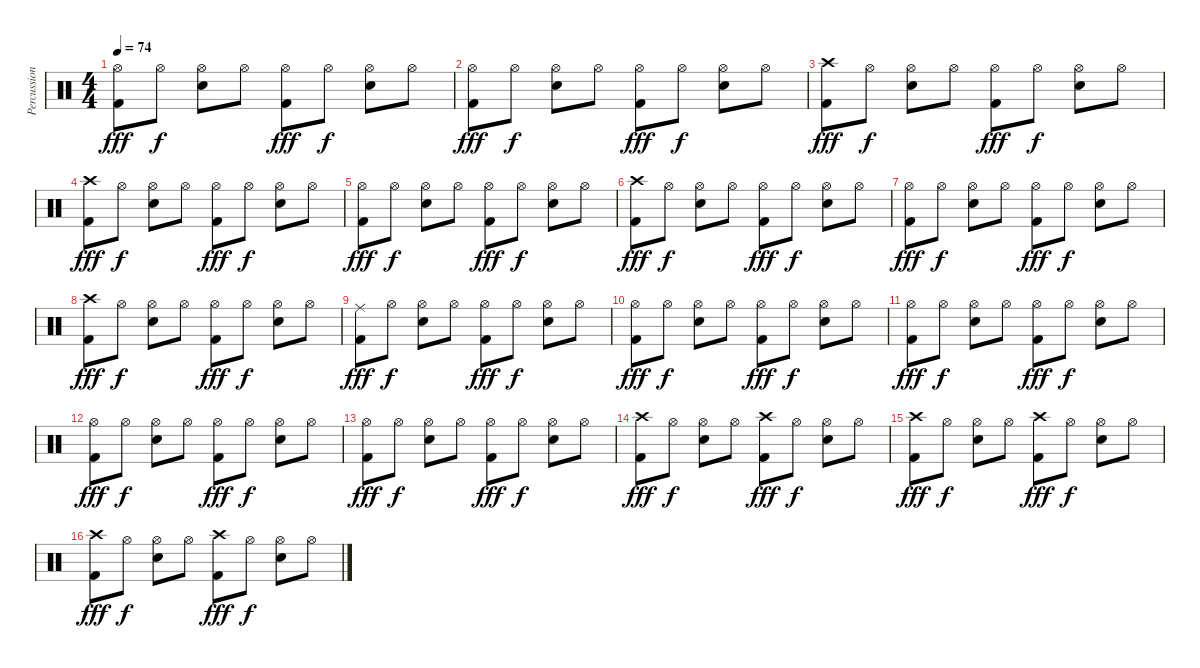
\track ("Percussion" "Percussion") {instrument percussion}
\staff {score}
\articulation defaults
\ts (4 4)
\tempo 74
\clef neutral
\ks c
("Hi-Hat (open)" "Kick (hit) 2").8{dy fff} "Hi-Hat (open)".8{dy f} ("Hi-Hat (open)" "Snare (hit) 2").8 "Hi-Hat (open)".8 ("Hi-Hat (open)" "Kick (hit) 2").8{dy fff} "Hi-Hat (open)".8{dy f} ("Hi-Hat (open)" "Snare (hit) 2").8 "Hi-Hat (open)".8 |
("Hi-Hat (open)" "Kick (hit) 2").8{dy fff} "Hi-Hat (open)".8{dy f} ("Hi-Hat (open)" "Snare (hit) 2").8 "Hi-Hat (open)".8 ("Hi-Hat (open)" "Kick (hit) 2").8{dy fff} "Hi-Hat (open)".8{dy f} ("Hi-Hat (open)" "Snare (hit) 2").8 "Hi-Hat (open)".8 |
("Crash high (hit)" "Kick (hit) 2").8{dy fff} "Hi-Hat (open)".8{dy f} ("Hi-Hat (open)" "Snare (hit) 2").8 "Hi-Hat (open)".8 ("Hi-Hat (open)" "Kick (hit) 2").8{dy fff} "Hi-Hat (open)".8{dy f} ("Hi-Hat (open)" "Snare (hit) 2").8 "Hi-Hat (open)".8 |
("Crash high (hit)" "Kick (hit) 2").8{dy fff} "Hi-Hat (open)".8{dy f} ("Hi-Hat (open)" "Snare (hit) 2").8 "Hi-Hat (open)".8 ("Hi-Hat (open)" "Kick (hit) 2").8{dy fff} "Hi-Hat (open)".8{dy f} ("Hi-Hat (open)" "Snare (hit) 2").8 "Hi-Hat (open)".8 |
("Hi-Hat (open)" "Kick (hit) 2").8{dy fff} "Hi-Hat (open)".8{dy f} ("Hi-Hat (open)" "Snare (hit) 2").8 "Hi-Hat (open)".8 ("Hi-Hat (open)" "Kick (hit) 2").8{dy fff} "Hi-Hat (open)".8{dy f} ("Hi-Hat (open)" "Snare (hit) 2").8 "Hi-Hat (open)".8 |
("Crash high (hit)" "Kick (hit) 2").8{dy fff} "Hi-Hat (open)".8{dy f} ("Hi-Hat (open)" "Snare (hit) 2").8 "Hi-Hat (open)".8 ("Hi-Hat (open)" "Kick (hit) 2").8{dy fff} "Hi-Hat (open)".8{dy f} ("Hi-Hat (open)" "Snare (hit) 2").8 "Hi-Hat (open)".8 |
("Hi-Hat (open)" "Kick (hit) 2").8{dy fff} "Hi-Hat (open)".8{dy f} ("Hi-Hat (open)" "Snare (hit) 2").8 "Hi-Hat (open)".8 ("Hi-Hat (open)" "Kick (hit) 2").8{dy fff} "Hi-Hat (open)".8{dy f} ("Hi-Hat (open)" "Snare (hit) 2").8 "Hi-Hat (open)".8 |
("Crash high (hit)" "Kick (hit) 2").8{dy fff} "Hi-Hat (open)".8{dy f} ("Hi-Hat (open)" "Snare (hit) 2").8 "Hi-Hat (open)".8 ("Hi-Hat (open)" "Kick (hit) 2").8{dy fff} "Hi-Hat (open)".8{dy f} ("Hi-Hat (open)" "Snare (hit) 2").8 "Hi-Hat (open)".8 |
("Ride (middle)" "Kick (hit) 2").8{dy fff} "Hi-Hat (open)".8{dy f} ("Hi-Hat (open)" "Snare (hit) 2").8 "Hi-Hat (open)".8 ("Hi-Hat (open)" "Kick (hit) 2").8{dy fff} "Hi-Hat (open)".8{dy f} ("Hi-Hat (open)" "Snare (hit) 2").8 "Hi-Hat (open)".8 |
("Hi-Hat (open)" "Kick (hit) 2").8{dy fff} "Hi-Hat (open)".8{dy f} ("Hi-Hat (open)" "Snare (hit) 2").8 "Hi-Hat (open)".8 ("Hi-Hat (open)" "Kick (hit) 2").8{dy fff} "Hi-Hat (open)".8{dy f} ("Hi-Hat (open)" "Snare (hit) 2").8 "Hi-Hat (open)".8 |
("Hi-Hat (open)" "Kick (hit) 2").8{dy fff} "Hi-Hat (open)".8{dy f} ("Hi-Hat (open)" "Snare (hit) 2").8 "Hi-Hat (open)".8 ("Hi-Hat (open)" "Kick (hit) 2").8{dy fff} "Hi-Hat (open)".8{dy f} ("Hi-Hat (open)" "Snare (hit) 2").8 "Hi-Hat (open)".8 |
("Hi-Hat (open)" "Kick (hit) 2").8{dy fff} "Hi-Hat (open)".8{dy f} ("Hi-Hat (open)" "Snare (hit) 2").8 "Hi-Hat (open)".8 ("Hi-Hat (open)" "Kick (hit) 2").8{dy fff} "Hi-Hat (open)".8{dy f} ("Hi-Hat (open)" "Snare (hit) 2").8 "Hi-Hat (open)".8 |
("Hi-Hat (open)" "Kick (hit) 2").8{dy fff} "Hi-Hat (open)".8{dy f} ("Hi-Hat (open)" "Snare (hit) 2").8 "Hi-Hat (open)".8 ("Hi-Hat (open)" "Kick (hit) 2").8{dy fff} "Hi-Hat (open)".8{dy f} ("Hi-Hat (open)" "Snare (hit) 2").8 "Hi-Hat (open)".8 |
("Crash high (hit)" "Kick (hit) 2").8{dy fff} "Hi-Hat (open)".8{dy f} ("Hi-Hat (open)" "Snare (hit) 2").8 "Hi-Hat (open)".8 ("Crash high (hit)" "Kick (hit) 2").8{dy fff} "Hi-Hat (open)".8{dy f} ("Hi-Hat (open)" "Snare (hit) 2").8 "Hi-Hat (open)".8 |
("Crash high (hit)" "Kick (hit) 2").8{dy fff} "Hi-Hat (open)".8{dy f} ("Hi-Hat (open)" "Snare (hit) 2").8 "Hi-Hat (open)".8 ("Crash high (hit)" "Kick (hit) 2").8{dy fff} "Hi-Hat (open)".8{dy f} ("Hi-Hat (open)" "Snare (hit) 2").8 "Hi-Hat (open)".8 |
("Crash high (hit)" "Kick (hit) 2").8{dy fff} "Hi-Hat (open)".8{dy f} ("Hi-Hat (open)" "Snare (hit) 2").8 "Hi-Hat (open)".8 ("Crash high (hit)" "Kick (hit) 2").8{dy fff} "Hi-Hat (open)".8{dy f} ("Hi-Hat (open)" "Snare (hit) 2").8 "Hi-Hat (open)".8
